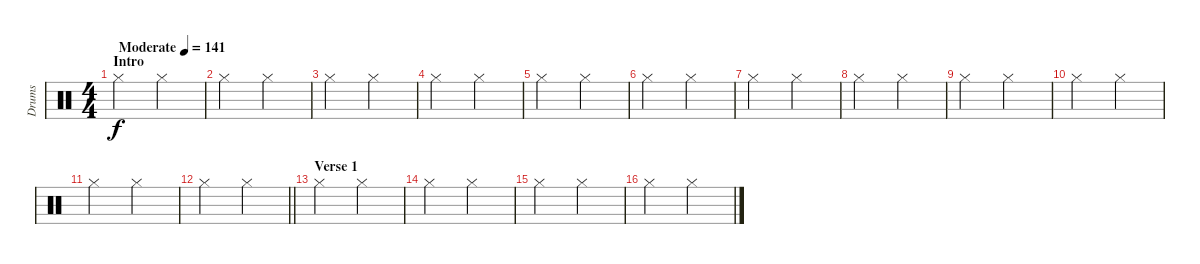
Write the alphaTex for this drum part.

\track ("Drums" "Drums") {instrument percussion}
\staff {score}
\articulation defaults
\ts (4 4)
\section ("" "Intro")
\tempo (141 "Moderate")
\clef neutral
\ks c "Hi-Hat (closed)".2{dy f volume 4} "Hi-Hat (closed)".2
|
"Hi-Hat (closed)".2 "Hi-Hat (closed)".2 |
"Hi-Hat (closed)".2 "Hi-Hat (closed)".2 |
"Hi-Hat (closed)".2 "Hi-Hat (closed)".2 |
"Hi-Hat (closed)".2 "Hi-Hat (closed)".2 |
"Hi-Hat (closed)".2 "Hi-Hat (closed)".2 |
"Hi-Hat (closed)".2 "Hi-Hat (closed)".2 |
"Hi-Hat (closed)".2 "Hi-Hat (closed)".2 |
"Hi-Hat (closed)".2 "Hi-Hat (closed)".2 |
"Hi-Hat (closed)".2 "Hi-Hat (closed)".2 |
"Hi-Hat (closed)".2 "Hi-Hat (closed)".2 |
\barLineRight lightlight "Hi-Hat (closed)".2 "Hi-Hat (closed)".2
|
\section ("" "Verse 1")
"Hi-Hat (closed)".2 "Hi-Hat (closed)".2 |
"Hi-Hat (closed)".2 "Hi-Hat (closed)".2 |
"Hi-Hat (closed)".2 "Hi-Hat (closed)".2 |
"Hi-Hat (closed)".2 "Hi-Hat (closed)".2
